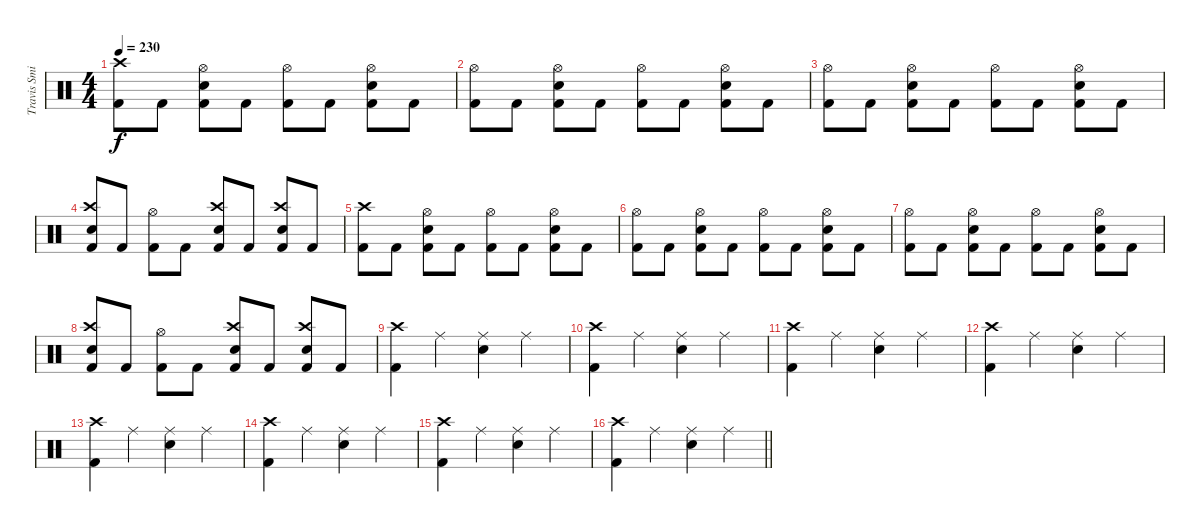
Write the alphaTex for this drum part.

\track ("Travis Smith" "Travis Smi") {instrument percussion}
\staff {score}
\articulation defaults
\ts (4 4)
\tempo 230
\clef neutral
\ks c
("Kick (hit) 2" "Crash high (hit)").8{dy f} "Kick (hit) 2".8 ("Kick (hit) 2" "Snare (hit) 2" "Hi-Hat (open)").8 "Kick (hit) 2".8 ("Kick (hit) 2" "Hi-Hat (open)").8 "Kick (hit) 2".8 ("Kick (hit) 2" "Snare (hit) 2" "Hi-Hat (open)").8 "Kick (hit) 2".8 |
("Kick (hit) 2" "Hi-Hat (open)").8 "Kick (hit) 2".8 ("Kick (hit) 2" "Snare (hit) 2" "Hi-Hat (open)").8 "Kick (hit) 2".8 ("Kick (hit) 2" "Hi-Hat (open)").8 "Kick (hit) 2".8 ("Kick (hit) 2" "Snare (hit) 2" "Hi-Hat (open)").8 "Kick (hit) 2".8 |
("Kick (hit) 2" "Hi-Hat (open)").8 "Kick (hit) 2".8 ("Kick (hit) 2" "Snare (hit) 2" "Hi-Hat (open)").8 "Kick (hit) 2".8 ("Kick (hit) 2" "Hi-Hat (open)").8 "Kick (hit) 2".8 ("Kick (hit) 2" "Snare (hit) 2" "Hi-Hat (open)").8 "Kick (hit) 2".8 |
("Kick (hit) 2" "Snare (hit) 2" "Crash high (hit)").8 "Kick (hit) 2".8 ("Kick (hit) 2" "Hi-Hat (open)").8 "Kick (hit) 2".8 ("Kick (hit) 2" "Snare (hit) 2" "Crash high (hit)").8 "Kick (hit) 2".8 ("Kick (hit) 2" "Snare (hit) 2" "Crash high (hit)").8 "Kick (hit) 2".8 |
("Kick (hit) 2" "Crash high (hit)").8 "Kick (hit) 2".8 ("Kick (hit) 2" "Snare (hit) 2" "Hi-Hat (open)").8 "Kick (hit) 2".8 ("Kick (hit) 2" "Hi-Hat (open)").8 "Kick (hit) 2".8 ("Kick (hit) 2" "Snare (hit) 2" "Hi-Hat (open)").8 "Kick (hit) 2".8 |
("Kick (hit) 2" "Hi-Hat (open)").8 "Kick (hit) 2".8 ("Kick (hit) 2" "Snare (hit) 2" "Hi-Hat (open)").8 "Kick (hit) 2".8 ("Kick (hit) 2" "Hi-Hat (open)").8 "Kick (hit) 2".8 ("Kick (hit) 2" "Snare (hit) 2" "Hi-Hat (open)").8 "Kick (hit) 2".8 |
("Kick (hit) 2" "Hi-Hat (open)").8 "Kick (hit) 2".8 ("Kick (hit) 2" "Snare (hit) 2" "Hi-Hat (open)").8 "Kick (hit) 2".8 ("Kick (hit) 2" "Hi-Hat (open)").8 "Kick (hit) 2".8 ("Kick (hit) 2" "Snare (hit) 2" "Hi-Hat (open)").8 "Kick (hit) 2".8 |
("Kick (hit) 2" "Snare (hit) 2" "Crash high (hit)").8 "Kick (hit) 2".8 ("Kick (hit) 2" "Hi-Hat (open)").8 "Kick (hit) 2".8 ("Kick (hit) 2" "Snare (hit) 2" "Crash high (hit)").8 "Kick (hit) 2".8 ("Kick (hit) 2" "Snare (hit) 2" "Crash high (hit)").8 "Kick (hit) 2".8 |
("Kick (hit) 2" "Crash high (hit)").4 "Ride (middle)".4 ("Snare (hit) 2" "Ride (middle)").4 "Ride (middle)".4 |
("Kick (hit) 2" "Crash high (hit)").4 "Ride (middle)".4 ("Snare (hit) 2" "Ride (middle)").4 "Ride (middle)".4 |
("Kick (hit) 2" "Crash high (hit)").4 "Ride (middle)".4 ("Snare (hit) 2" "Ride (middle)").4 "Ride (middle)".4 |
("Kick (hit) 2" "Crash high (hit)").4 "Ride (middle)".4 ("Snare (hit) 2" "Ride (middle)").4 "Ride (middle)".4 |
("Kick (hit) 2" "Crash high (hit)").4 "Ride (middle)".4 ("Snare (hit) 2" "Ride (middle)").4 "Ride (middle)".4 |
("Kick (hit) 2" "Crash high (hit)").4 "Ride (middle)".4 ("Snare (hit) 2" "Ride (middle)").4 "Ride (middle)".4 |
("Kick (hit) 2" "Crash high (hit)").4 "Ride (middle)".4 ("Snare (hit) 2" "Ride (middle)").4 "Ride (middle)".4 |
\barLineRight lightlight
("Kick (hit) 2" "Crash high (hit)").4 "Ride (middle)".4 ("Snare (hit) 2" "Ride (middle)").4 "Ride (middle)".4
